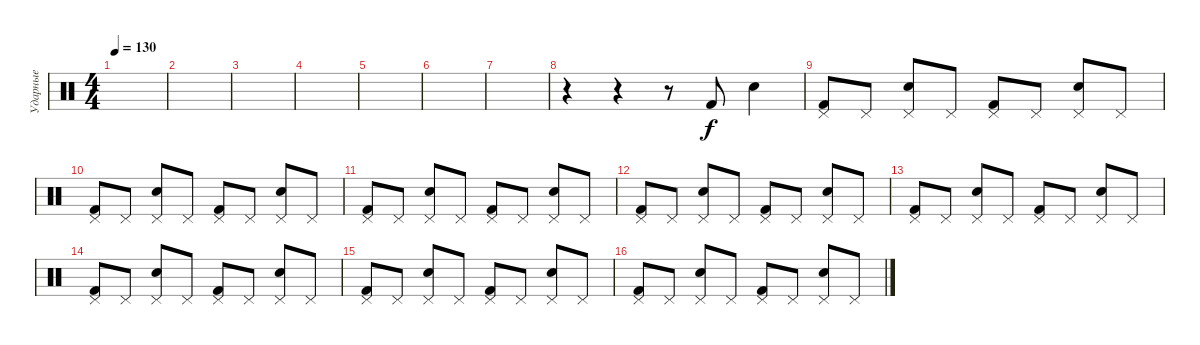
\track ("Ударные" "Ударные") {instrument percussion}
\staff {score}
\articulation defaults
\ts (4 4)
\tempo 130
\clef neutral
\ks c
|
|
|
|
|
|
|
r.4 r.4 r.8 "Kick (hit) 2".8 "Snare (hit) 2".4 |
("Pedal Hi-Hat (hit)" "Kick (hit) 2").8 "Pedal Hi-Hat (hit)".8 ("Pedal Hi-Hat (hit)" "Snare (hit) 2").8 "Pedal Hi-Hat (hit)".8 ("Pedal Hi-Hat (hit)" "Kick (hit) 2").8 "Pedal Hi-Hat (hit)".8 ("Pedal Hi-Hat (hit)" "Snare (hit) 2").8 "Pedal Hi-Hat (hit)".8 |
("Pedal Hi-Hat (hit)" "Kick (hit) 2").8 "Pedal Hi-Hat (hit)".8 ("Pedal Hi-Hat (hit)" "Snare (hit) 2").8 "Pedal Hi-Hat (hit)".8 ("Pedal Hi-Hat (hit)" "Kick (hit) 2").8 "Pedal Hi-Hat (hit)".8 ("Pedal Hi-Hat (hit)" "Snare (hit) 2").8 "Pedal Hi-Hat (hit)".8 |
("Pedal Hi-Hat (hit)" "Kick (hit) 2").8 "Pedal Hi-Hat (hit)".8 ("Pedal Hi-Hat (hit)" "Snare (hit) 2").8 "Pedal Hi-Hat (hit)".8 ("Pedal Hi-Hat (hit)" "Kick (hit) 2").8 "Pedal Hi-Hat (hit)".8 ("Pedal Hi-Hat (hit)" "Snare (hit) 2").8 "Pedal Hi-Hat (hit)".8 |
("Pedal Hi-Hat (hit)" "Kick (hit) 2").8 "Pedal Hi-Hat (hit)".8 ("Pedal Hi-Hat (hit)" "Snare (hit) 2").8 "Pedal Hi-Hat (hit)".8 ("Pedal Hi-Hat (hit)" "Kick (hit) 2").8 "Pedal Hi-Hat (hit)".8 ("Pedal Hi-Hat (hit)" "Snare (hit) 2").8 "Pedal Hi-Hat (hit)".8 |
("Pedal Hi-Hat (hit)" "Kick (hit) 2").8 "Pedal Hi-Hat (hit)".8 ("Pedal Hi-Hat (hit)" "Snare (hit) 2").8 "Pedal Hi-Hat (hit)".8 ("Pedal Hi-Hat (hit)" "Kick (hit) 2").8 "Pedal Hi-Hat (hit)".8 ("Pedal Hi-Hat (hit)" "Snare (hit) 2").8 "Pedal Hi-Hat (hit)".8 |
("Pedal Hi-Hat (hit)" "Kick (hit) 2").8 "Pedal Hi-Hat (hit)".8 ("Pedal Hi-Hat (hit)" "Snare (hit) 2").8 "Pedal Hi-Hat (hit)".8 ("Pedal Hi-Hat (hit)" "Kick (hit) 2").8 "Pedal Hi-Hat (hit)".8 ("Pedal Hi-Hat (hit)" "Snare (hit) 2").8 "Pedal Hi-Hat (hit)".8 |
("Pedal Hi-Hat (hit)" "Kick (hit) 2").8 "Pedal Hi-Hat (hit)".8 ("Pedal Hi-Hat (hit)" "Snare (hit) 2").8 "Pedal Hi-Hat (hit)".8 ("Pedal Hi-Hat (hit)" "Kick (hit) 2").8 "Pedal Hi-Hat (hit)".8 ("Pedal Hi-Hat (hit)" "Snare (hit) 2").8 "Pedal Hi-Hat (hit)".8 |
("Pedal Hi-Hat (hit)" "Kick (hit) 2").8 "Pedal Hi-Hat (hit)".8 ("Pedal Hi-Hat (hit)" "Snare (hit) 2").8 "Pedal Hi-Hat (hit)".8 ("Pedal Hi-Hat (hit)" "Kick (hit) 2").8 "Pedal Hi-Hat (hit)".8 ("Pedal Hi-Hat (hit)" "Snare (hit) 2").8 "Pedal Hi-Hat (hit)".8
